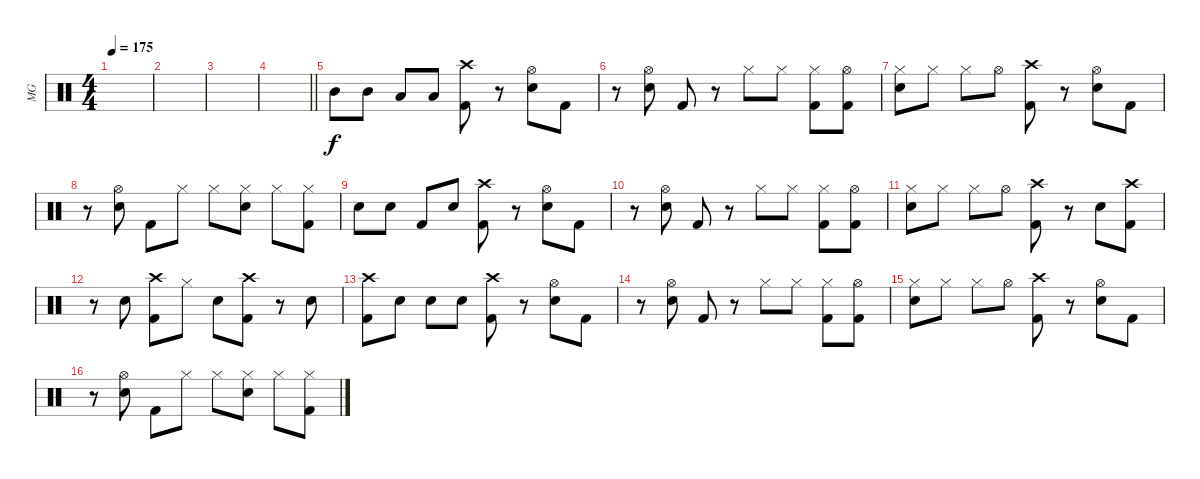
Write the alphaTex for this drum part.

\track ("MG" "MG") {instrument percussion}
\staff {score}
\articulation defaults
\ts (4 4)
\tempo 175
\clef neutral
\ks c
|
|
|
\barLineRight lightlight
|
\section ("" "")
"Mid Tom (hit)".8 "Mid Tom (hit)".8 "Low Tom (hit)".8 "Low Tom (hit)".8 ("Crash high (hit)" "Kick (hit) 2").8 r.8 ("Hi-Hat (open)" "Electric Snare (hit)").8 "Kick (hit) 2".8 |
r.8 ("Hi-Hat (open)" "Electric Snare (hit)").8 "Kick (hit) 2".8 r.8 "Hi-Hat (closed)".8 "Hi-Hat (closed)".8 ("Hi-Hat (closed)" "Kick (hit) 2").8 ("Hi-Hat (open)" "Kick (hit) 2").8 |
("Hi-Hat (closed)" "Electric Snare (hit)").8 "Hi-Hat (closed)".8 "Hi-Hat (closed)".8 "Hi-Hat (open)".8 ("Crash high (hit)" "Kick (hit) 2").8 r.8 ("Hi-Hat (open)" "Electric Snare (hit)").8 "Kick (hit) 2".8 |
r.8 ("Hi-Hat (open)" "Electric Snare (hit)").8 "Kick (hit) 2".8 "Hi-Hat (closed)".8 "Hi-Hat (closed)".8 ("Hi-Hat (closed)" "Electric Snare (hit)").8 "Hi-Hat (closed)".8 ("Hi-Hat (closed)" "Kick (hit) 2").8 |
"Electric Snare (hit)".8 "Electric Snare (hit)".8 "Kick (hit) 2".8 "Electric Snare (hit)".8 ("Crash high (hit)" "Kick (hit) 2").8 r.8 ("Hi-Hat (open)" "Electric Snare (hit)").8 "Kick (hit) 2".8 |
r.8 ("Hi-Hat (open)" "Electric Snare (hit)").8 "Kick (hit) 2".8 r.8 "Hi-Hat (closed)".8 "Hi-Hat (closed)".8 ("Hi-Hat (closed)" "Kick (hit) 2").8 ("Hi-Hat (open)" "Kick (hit) 2").8 |
("Hi-Hat (closed)" "Electric Snare (hit)").8 "Hi-Hat (closed)".8 "Hi-Hat (closed)".8 "Hi-Hat (open)".8 ("Crash high (hit)" "Kick (hit) 2").8 r.8 "Electric Snare (hit)".8 ("Crash high (hit)" "Kick (hit) 2").8 |
r.8 "Electric Snare (hit)".8 ("Crash high (hit)" "Kick (hit) 2").8 "Hi-Hat (closed)".8 "Electric Snare (hit)".8 ("Crash high (hit)" "Kick (hit) 2").8 r.8 "Electric Snare (hit)".8 |
("Crash high (hit)" "Kick (hit) 2").8 "Electric Snare (hit)".8 "Electric Snare (hit)".8 "Electric Snare (hit)".8 ("Crash high (hit)" "Kick (hit) 2").8 r.8 ("Hi-Hat (open)" "Electric Snare (hit)").8 "Kick (hit) 2".8 |
r.8 ("Hi-Hat (open)" "Electric Snare (hit)").8 "Kick (hit) 2".8 r.8 "Hi-Hat (closed)".8 "Hi-Hat (closed)".8 ("Hi-Hat (closed)" "Kick (hit) 2").8 ("Hi-Hat (open)" "Kick (hit) 2").8 |
("Hi-Hat (closed)" "Electric Snare (hit)").8 "Hi-Hat (closed)".8 "Hi-Hat (closed)".8 "Hi-Hat (open)".8 ("Crash high (hit)" "Kick (hit) 2").8 r.8 ("Hi-Hat (open)" "Electric Snare (hit)").8 "Kick (hit) 2".8 |
r.8 ("Hi-Hat (open)" "Electric Snare (hit)").8 "Kick (hit) 2".8 "Hi-Hat (closed)".8 "Hi-Hat (closed)".8 ("Hi-Hat (closed)" "Electric Snare (hit)").8 "Hi-Hat (closed)".8 ("Hi-Hat (closed)" "Kick (hit) 2").8
